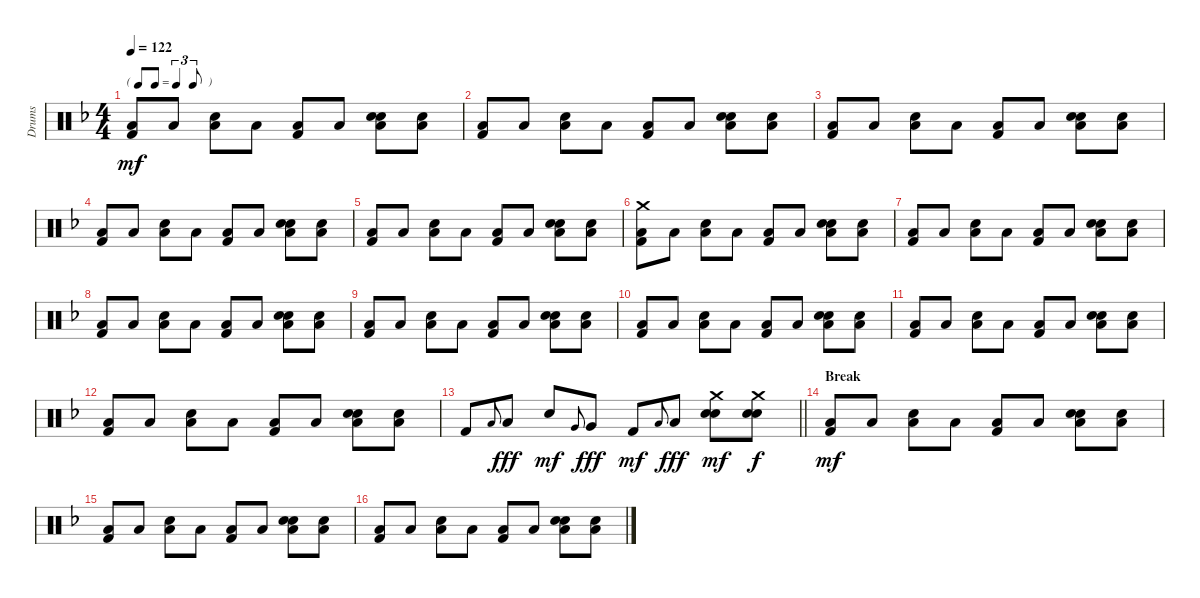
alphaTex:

\track ("Drums" "Drums") {instrument percussion}
\staff {score}
\articulation defaults
\ts (4 4)
\tf triplet8th
\tempo 122
\clef neutral
\ks dminor
("Low Floor Tom (hit)" "Kick (hit) 2").8{dy mf} "Low Floor Tom (hit)".8 ("Low Floor Tom (hit)" "Snare (hit) 2").8 "Low Floor Tom (hit)".8 ("Low Floor Tom (hit)" "Kick (hit) 2").8 "Low Floor Tom (hit)".8 ("Hand Clap (hit)" "Low Floor Tom (hit)" "Snare (hit) 2").8 ("Hand Clap (hit)" "Low Floor Tom (hit)").8 |
("Low Floor Tom (hit)" "Kick (hit) 2").8 "Low Floor Tom (hit)".8 ("Low Floor Tom (hit)" "Snare (hit) 2").8 "Low Floor Tom (hit)".8 ("Low Floor Tom (hit)" "Kick (hit) 2").8 "Low Floor Tom (hit)".8 ("Hand Clap (hit)" "Low Floor Tom (hit)" "Snare (hit) 2").8 ("Hand Clap (hit)" "Low Floor Tom (hit)").8 |
("Low Floor Tom (hit)" "Kick (hit) 2").8 "Low Floor Tom (hit)".8 ("Low Floor Tom (hit)" "Snare (hit) 2").8 "Low Floor Tom (hit)".8 ("Low Floor Tom (hit)" "Kick (hit) 2").8 "Low Floor Tom (hit)".8 ("Hand Clap (hit)" "Low Floor Tom (hit)" "Snare (hit) 2").8 ("Hand Clap (hit)" "Low Floor Tom (hit)").8 |
("Low Floor Tom (hit)" "Kick (hit) 2").8 "Low Floor Tom (hit)".8 ("Low Floor Tom (hit)" "Snare (hit) 2").8 "Low Floor Tom (hit)".8 ("Low Floor Tom (hit)" "Kick (hit) 2").8 "Low Floor Tom (hit)".8 ("Hand Clap (hit)" "Low Floor Tom (hit)" "Snare (hit) 2").8 ("Hand Clap (hit)" "Low Floor Tom (hit)").8 |
("Low Floor Tom (hit)" "Kick (hit) 2").8 "Low Floor Tom (hit)".8 ("Low Floor Tom (hit)" "Snare (hit) 2").8 "Low Floor Tom (hit)".8 ("Low Floor Tom (hit)" "Kick (hit) 2").8 "Low Floor Tom (hit)".8 ("Hand Clap (hit)" "Low Floor Tom (hit)" "Snare (hit) 2").8 ("Hand Clap (hit)" "Low Floor Tom (hit)").8 |
("Crash medium (hit)" "Low Floor Tom (hit)" "Kick (hit) 2").8 "Low Floor Tom (hit)".8 ("Low Floor Tom (hit)" "Snare (hit) 2").8 "Low Floor Tom (hit)".8 ("Low Floor Tom (hit)" "Kick (hit) 2").8 "Low Floor Tom (hit)".8 ("Hand Clap (hit)" "Low Floor Tom (hit)" "Snare (hit) 2").8 ("Hand Clap (hit)" "Low Floor Tom (hit)").8 |
("Low Floor Tom (hit)" "Kick (hit) 2").8 "Low Floor Tom (hit)".8 ("Low Floor Tom (hit)" "Snare (hit) 2").8 "Low Floor Tom (hit)".8 ("Low Floor Tom (hit)" "Kick (hit) 2").8 "Low Floor Tom (hit)".8 ("Hand Clap (hit)" "Low Floor Tom (hit)" "Snare (hit) 2").8 ("Hand Clap (hit)" "Low Floor Tom (hit)").8 |
("Low Floor Tom (hit)" "Kick (hit) 2").8 "Low Floor Tom (hit)".8 ("Low Floor Tom (hit)" "Snare (hit) 2").8 "Low Floor Tom (hit)".8 ("Low Floor Tom (hit)" "Kick (hit) 2").8 "Low Floor Tom (hit)".8 ("Hand Clap (hit)" "Low Floor Tom (hit)" "Snare (hit) 2").8 ("Hand Clap (hit)" "Low Floor Tom (hit)").8 |
("Low Floor Tom (hit)" "Kick (hit) 2").8 "Low Floor Tom (hit)".8 ("Low Floor Tom (hit)" "Snare (hit) 2").8 "Low Floor Tom (hit)".8 ("Low Floor Tom (hit)" "Kick (hit) 2").8 "Low Floor Tom (hit)".8 ("Hand Clap (hit)" "Low Floor Tom (hit)" "Snare (hit) 2").8 ("Hand Clap (hit)" "Low Floor Tom (hit)").8 |
("Low Floor Tom (hit)" "Kick (hit) 2").8 "Low Floor Tom (hit)".8 ("Low Floor Tom (hit)" "Snare (hit) 2").8 "Low Floor Tom (hit)".8 ("Low Floor Tom (hit)" "Kick (hit) 2").8 "Low Floor Tom (hit)".8 ("Hand Clap (hit)" "Low Floor Tom (hit)" "Snare (hit) 2").8 ("Hand Clap (hit)" "Low Floor Tom (hit)").8 |
("Low Floor Tom (hit)" "Kick (hit) 2").8 "Low Floor Tom (hit)".8 ("Low Floor Tom (hit)" "Snare (hit) 2").8 "Low Floor Tom (hit)".8 ("Low Floor Tom (hit)" "Kick (hit) 2").8 "Low Floor Tom (hit)".8 ("Hand Clap (hit)" "Low Floor Tom (hit)" "Snare (hit) 2").8 ("Hand Clap (hit)" "Low Floor Tom (hit)").8 |
("Low Floor Tom (hit)" "Kick (hit) 2").8 "Low Floor Tom (hit)".8 ("Low Floor Tom (hit)" "Snare (hit) 2").8 "Low Floor Tom (hit)".8 ("Low Floor Tom (hit)" "Kick (hit) 2").8 "Low Floor Tom (hit)".8 ("Hand Clap (hit)" "Low Floor Tom (hit)" "Snare (hit) 2").8 ("Hand Clap (hit)" "Low Floor Tom (hit)").8 |
\barLineRight lightlight "Kick (hit) 2".8 "Low Tom (hit)".8{gr onbeat} "Low Tom (hit)".8{dy fff} "Snare (hit) 2".8{dy mf} "Very Low Tom (hit)".8{gr onbeat} "Very Low Tom (hit)".8{dy fff} "Kick (hit) 2".8{dy mf} "Low Floor Tom (hit)".8{gr onbeat} "Low Floor Tom (hit)".8{dy fff}
("Crash medium (hit)" "Hand Clap (hit)" "Snare (hit) 2").8{dy mf} ("Crash medium (hit)" "Hand Clap (hit)" "Snare (hit) 2").8{dy f} |
\section ("" "Break")
("Low Floor Tom (hit)" "Kick (hit) 2").8{dy mf} "Low Floor Tom (hit)".8 ("Low Floor Tom (hit)" "Snare (hit) 2").8 "Low Floor Tom (hit)".8 ("Low Floor Tom (hit)" "Kick (hit) 2").8 "Low Floor Tom (hit)".8 ("Hand Clap (hit)" "Low Floor Tom (hit)" "Snare (hit) 2").8 ("Hand Clap (hit)" "Low Floor Tom (hit)").8 |
("Low Floor Tom (hit)" "Kick (hit) 2").8 "Low Floor Tom (hit)".8 ("Low Floor Tom (hit)" "Snare (hit) 2").8 "Low Floor Tom (hit)".8 ("Low Floor Tom (hit)" "Kick (hit) 2").8 "Low Floor Tom (hit)".8 ("Hand Clap (hit)" "Low Floor Tom (hit)" "Snare (hit) 2").8 ("Hand Clap (hit)" "Low Floor Tom (hit)").8 |
("Low Floor Tom (hit)" "Kick (hit) 2").8 "Low Floor Tom (hit)".8 ("Low Floor Tom (hit)" "Snare (hit) 2").8 "Low Floor Tom (hit)".8 ("Low Floor Tom (hit)" "Kick (hit) 2").8 "Low Floor Tom (hit)".8 ("Hand Clap (hit)" "Low Floor Tom (hit)" "Snare (hit) 2").8 ("Hand Clap (hit)" "Low Floor Tom (hit)").8
